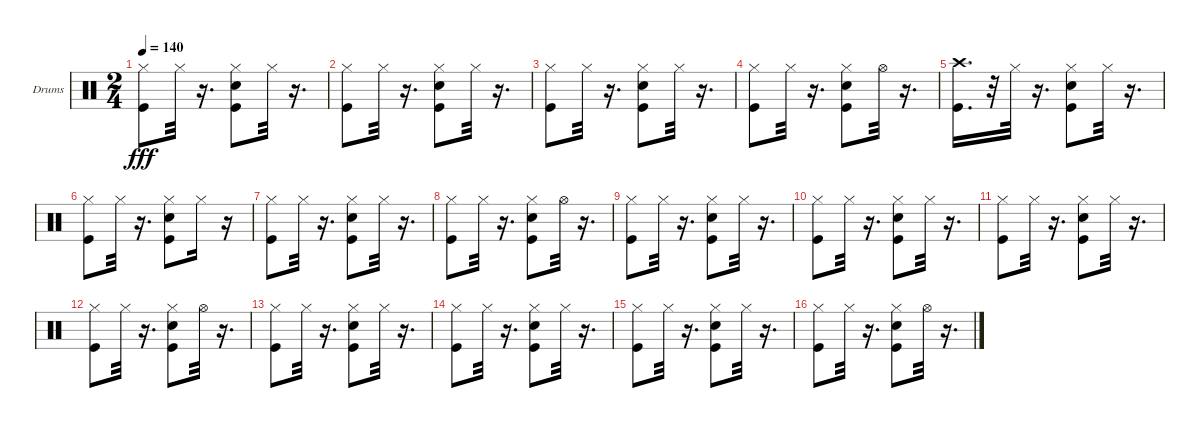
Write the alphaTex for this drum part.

\bracketExtendMode groupsimilarinstruments
\firstSystemTrackNameOrientation horizontal
\otherSystemsTrackNameOrientation horizontal
\track ("Ударные" "Drums") {instrument percussion}
\staff {score}
\articulation defaults
\ts (2 4)
\tempo 140
\clef neutral
\ks c
("Kick (hit)" "Hi-Hat (closed)").8{dy fff} "Hi-Hat (closed)".32 r.16{d} ("Kick (hit)" "Hi-Hat (closed)" "Snare (hit) 2").8 "Hi-Hat (closed)".32 r.16{d} |
("Kick (hit)" "Hi-Hat (closed)").8 "Hi-Hat (closed)".32 r.16{d} ("Hi-Hat (closed)" "Snare (hit) 2" "Kick (hit)").8 "Hi-Hat (closed)".32 r.16{d} |
("Kick (hit)" "Hi-Hat (closed)").8 "Hi-Hat (closed)".32 r.16{d} ("Kick (hit)" "Hi-Hat (closed)" "Snare (hit) 2").8 "Hi-Hat (closed)".32 r.16{d} |
("Kick (hit)" "Hi-Hat (closed)").8 "Hi-Hat (closed)".32 r.16{d} ("Snare (hit) 2" "Kick (hit)" "Hi-Hat (closed)").8 "Hi-Hat (open)".32 r.16{d} |
("Kick (hit)" "Crash high (hit)").16{d} r.32 "Hi-Hat (closed)".32 r.16{d} ("Kick (hit)" "Snare (hit) 2" "Hi-Hat (closed)").8 "Hi-Hat (closed)".32 r.16{d} |
("Kick (hit)" "Hi-Hat (closed)").8 "Hi-Hat (closed)".32 r.16{d} ("Hi-Hat (closed)" "Snare (hit) 2" "Kick (hit)").8 "Hi-Hat (closed)".16 r.16 |
("Kick (hit)" "Hi-Hat (closed)").8 "Hi-Hat (closed)".32 r.16{d} ("Snare (hit) 2" "Kick (hit)" "Hi-Hat (closed)").8 "Hi-Hat (closed)".32 r.16{d} |
("Kick (hit)" "Hi-Hat (closed)").8 "Hi-Hat (closed)".32 r.16{d} ("Snare (hit) 2" "Hi-Hat (closed)" "Kick (hit)").8 "Hi-Hat (open)".32 r.16{d} |
("Kick (hit)" "Hi-Hat (closed)").8 "Hi-Hat (closed)".32 r.16{d} ("Snare (hit) 2" "Kick (hit)" "Hi-Hat (closed)").8 "Hi-Hat (closed)".32 r.16{d} |
("Kick (hit)" "Hi-Hat (closed)").8 "Hi-Hat (closed)".32 r.16{d} ("Snare (hit) 2" "Kick (hit)" "Hi-Hat (closed)").8 "Hi-Hat (closed)".32 r.16{d} |
("Kick (hit)" "Hi-Hat (closed)").8 "Hi-Hat (closed)".32 r.16{d} ("Kick (hit)" "Hi-Hat (closed)" "Snare (hit) 2").8 "Hi-Hat (closed)".32 r.16{d} |
("Kick (hit)" "Hi-Hat (closed)").8 "Hi-Hat (closed)".32 r.16{d} ("Snare (hit) 2" "Kick (hit)" "Hi-Hat (closed)").8 "Hi-Hat (open)".32 r.16{d} |
("Kick (hit)" "Hi-Hat (closed)").8 "Hi-Hat (closed)".32 r.16{d} ("Snare (hit) 2" "Kick (hit)" "Hi-Hat (closed)").8 "Hi-Hat (closed)".32 r.16{d} |
("Kick (hit)" "Hi-Hat (closed)").8 "Hi-Hat (closed)".32 r.16{d} ("Snare (hit) 2" "Kick (hit)" "Hi-Hat (closed)").8 "Hi-Hat (closed)".32 r.16{d} |
("Kick (hit)" "Hi-Hat (closed)").8 "Hi-Hat (closed)".32 r.16{d} ("Snare (hit) 2" "Kick (hit)" "Hi-Hat (closed)").8 "Hi-Hat (closed)".32 r.16{d} |
("Kick (hit)" "Hi-Hat (closed)").8 "Hi-Hat (closed)".32 r.16{d} ("Snare (hit) 2" "Kick (hit)" "Hi-Hat (closed)").8 "Hi-Hat (open)".32 r.16{d}
